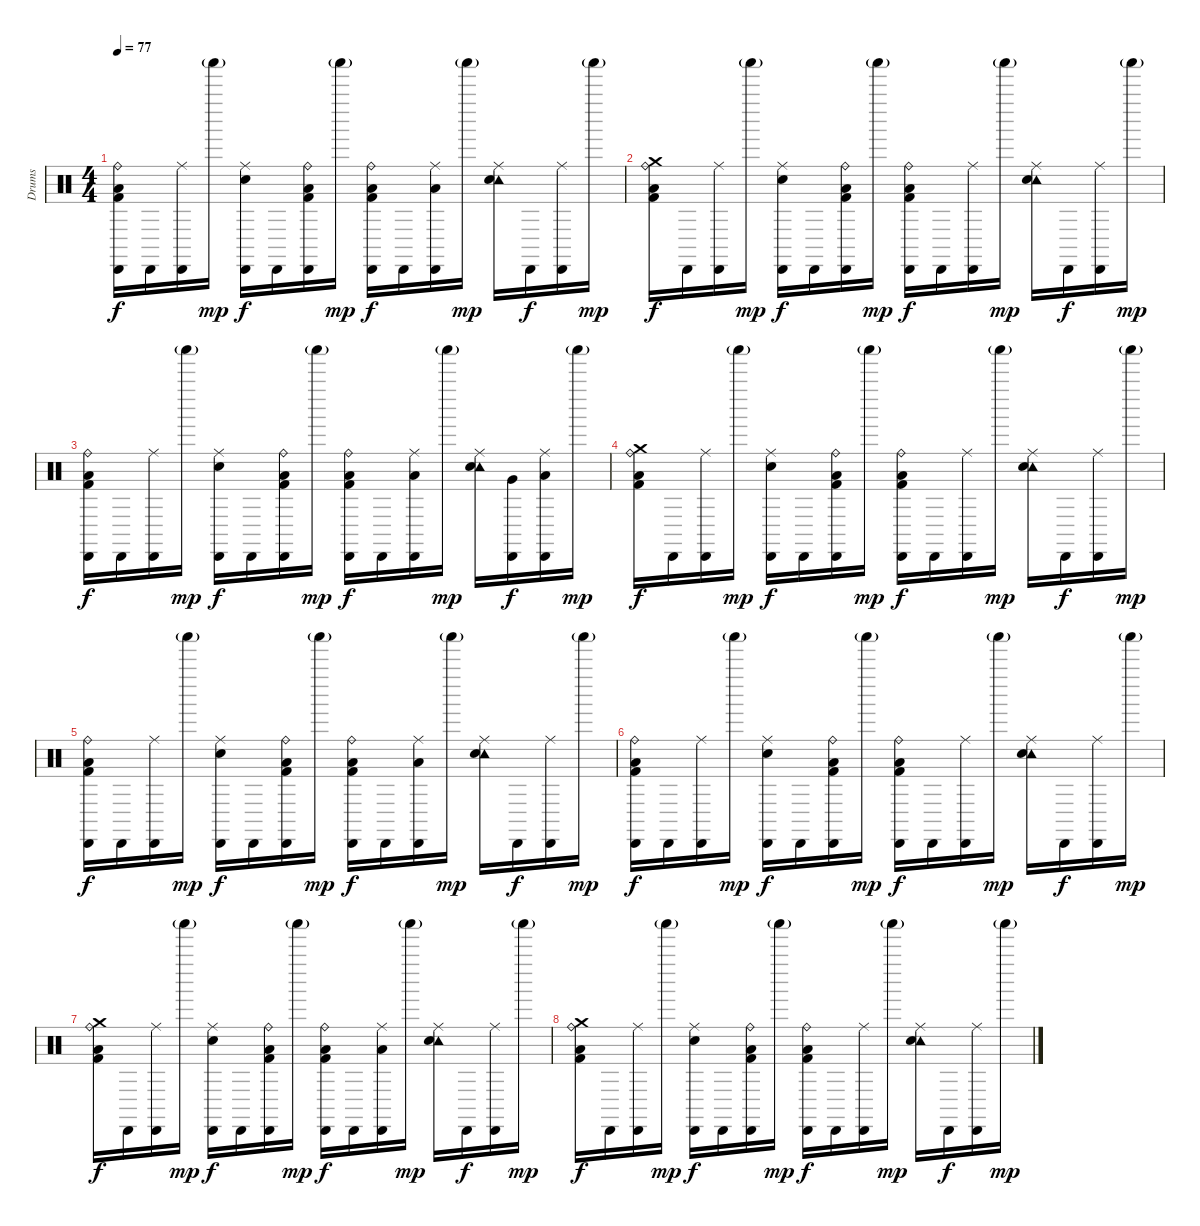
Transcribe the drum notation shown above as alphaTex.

\track ("Drums" "Drums") {instrument percussion}
\staff {score}
\articulation defaults
\ts (4 4)
\tempo 77
\clef neutral
\ks c
("Cabasa (hit)" "Ride (bell)" "Low Floor Tom (hit)" "Kick (hit) 2").16{dy f} "Cabasa (hit)".16 ("Cabasa (hit)" "Ride (middle)").16 "Shaker (hit)"{g}.16{dy mp} ("Cabasa (hit)" "Ride (middle)" "Snare (hit) 2").16{dy f} "Cabasa (hit)".16 ("Cabasa (hit)" "Ride (bell)" "Low Floor Tom (hit)" "Kick (hit) 2").16 "Shaker (hit)"{g}.16{dy mp} ("Cabasa (hit)" "Ride (bell)" "Low Floor Tom (hit)" "Kick (hit) 2").16{dy f} "Cabasa (hit)".16 ("Cabasa (hit)" "Ride (middle)" "Low Floor Tom (hit)").16 "Shaker (hit)"{g}.16{dy mp} ("Tambourine (hit)" "Ride (middle)" "Snare (hit) 2").16 "Cabasa (hit)".16{dy f} ("Cabasa (hit)" "Ride (middle)").16 "Shaker (hit)"{g}.16{dy mp} |
("Crash medium (hit)" "Ride (bell)" "Low Floor Tom (hit)" "Kick (hit) 2").16{dy f} "Cabasa (hit)".16 ("Cabasa (hit)" "Ride (middle)").16 "Shaker (hit)"{g}.16{dy mp} ("Cabasa (hit)" "Ride (middle)" "Snare (hit) 2").16{dy f} "Cabasa (hit)".16 ("Cabasa (hit)" "Ride (bell)" "Low Floor Tom (hit)" "Kick (hit) 2").16 "Shaker (hit)"{g}.16{dy mp} ("Cabasa (hit)" "Ride (bell)" "Low Floor Tom (hit)" "Kick (hit) 2").16{dy f} "Cabasa (hit)".16 ("Cabasa (hit)" "Ride (middle)").16 "Shaker (hit)"{g}.16{dy mp} ("Tambourine (hit)" "Ride (middle)" "Snare (hit) 2").16 "Cabasa (hit)".16{dy f} ("Cabasa (hit)" "Ride (middle)").16 "Shaker (hit)"{g}.16{dy mp} |
("Cabasa (hit)" "Ride (bell)" "Low Floor Tom (hit)" "Kick (hit) 2").16{dy f} "Cabasa (hit)".16 ("Cabasa (hit)" "Ride (middle)").16 "Shaker (hit)"{g}.16{dy mp} ("Cabasa (hit)" "Ride (middle)" "Snare (hit) 2").16{dy f} "Cabasa (hit)".16 ("Cabasa (hit)" "Ride (bell)" "Low Floor Tom (hit)" "Kick (hit) 2").16 "Shaker (hit)"{g}.16{dy mp} ("Cabasa (hit)" "Ride (bell)" "Low Floor Tom (hit)" "Kick (hit) 2").16{dy f} "Cabasa (hit)".16 ("Cabasa (hit)" "Ride (middle)" "Low Floor Tom (hit)").16 "Shaker (hit)"{g}.16{dy mp} ("Tambourine (hit)" "Ride (middle)" "Snare (hit) 2").16 ("Cabasa (hit)" "Very Low Tom (hit)").16{dy f} ("Cabasa (hit)" "Ride (middle)" "Low Floor Tom (hit)").16 "Shaker (hit)"{g}.16{dy mp} |
("Crash medium (hit)" "Ride (bell)" "Low Floor Tom (hit)" "Kick (hit) 2").16{dy f} "Cabasa (hit)".16 ("Cabasa (hit)" "Ride (middle)").16 "Shaker (hit)"{g}.16{dy mp} ("Cabasa (hit)" "Ride (middle)" "Snare (hit) 2").16{dy f} "Cabasa (hit)".16 ("Cabasa (hit)" "Ride (bell)" "Low Floor Tom (hit)" "Kick (hit) 2").16 "Shaker (hit)"{g}.16{dy mp} ("Cabasa (hit)" "Ride (bell)" "Low Floor Tom (hit)" "Kick (hit) 2").16{dy f} "Cabasa (hit)".16 ("Cabasa (hit)" "Ride (middle)").16 "Shaker (hit)"{g}.16{dy mp} ("Tambourine (hit)" "Ride (middle)" "Snare (hit) 2").16 "Cabasa (hit)".16{dy f} ("Cabasa (hit)" "Ride (middle)").16 "Shaker (hit)"{g}.16{dy mp} |
("Cabasa (hit)" "Ride (bell)" "Low Floor Tom (hit)" "Kick (hit) 2").16{dy f} "Cabasa (hit)".16 ("Cabasa (hit)" "Ride (middle)").16 "Shaker (hit)"{g}.16{dy mp} ("Cabasa (hit)" "Ride (middle)" "Snare (hit) 2").16{dy f} "Cabasa (hit)".16 ("Cabasa (hit)" "Ride (bell)" "Low Floor Tom (hit)" "Kick (hit) 2").16 "Shaker (hit)"{g}.16{dy mp} ("Cabasa (hit)" "Ride (bell)" "Low Floor Tom (hit)" "Kick (hit) 2").16{dy f} "Cabasa (hit)".16 ("Cabasa (hit)" "Ride (middle)" "Low Floor Tom (hit)").16 "Shaker (hit)"{g}.16{dy mp} ("Tambourine (hit)" "Ride (middle)" "Snare (hit) 2").16 "Cabasa (hit)".16{dy f} ("Cabasa (hit)" "Ride (middle)").16 "Shaker (hit)"{g}.16{dy mp} |
("Cabasa (hit)" "Ride (bell)" "Low Floor Tom (hit)" "Kick (hit) 2").16{dy f} "Cabasa (hit)".16 ("Cabasa (hit)" "Ride (middle)").16 "Shaker (hit)"{g}.16{dy mp} ("Cabasa (hit)" "Ride (middle)" "Snare (hit) 2").16{dy f} "Cabasa (hit)".16 ("Cabasa (hit)" "Ride (bell)" "Low Floor Tom (hit)" "Kick (hit) 2").16 "Shaker (hit)"{g}.16{dy mp} ("Cabasa (hit)" "Ride (bell)" "Low Floor Tom (hit)" "Kick (hit) 2").16{dy f} "Cabasa (hit)".16 ("Cabasa (hit)" "Ride (middle)").16 "Shaker (hit)"{g}.16{dy mp} ("Tambourine (hit)" "Ride (middle)" "Snare (hit) 2").16 "Cabasa (hit)".16{dy f} ("Cabasa (hit)" "Ride (middle)").16 "Shaker (hit)"{g}.16{dy mp} |
("Crash medium (hit)" "Ride (bell)" "Low Floor Tom (hit)" "Kick (hit) 2").16{dy f} "Cabasa (hit)".16 ("Cabasa (hit)" "Ride (middle)").16 "Shaker (hit)"{g}.16{dy mp} ("Cabasa (hit)" "Ride (middle)" "Snare (hit) 2").16{dy f} "Cabasa (hit)".16 ("Cabasa (hit)" "Ride (bell)" "Low Floor Tom (hit)" "Kick (hit) 2").16 "Shaker (hit)"{g}.16{dy mp} ("Cabasa (hit)" "Ride (bell)" "Low Floor Tom (hit)" "Kick (hit) 2").16{dy f} "Cabasa (hit)".16 ("Cabasa (hit)" "Ride (middle)" "Low Floor Tom (hit)").16 "Shaker (hit)"{g}.16{dy mp} ("Tambourine (hit)" "Ride (middle)" "Snare (hit) 2").16 "Cabasa (hit)".16{dy f} ("Cabasa (hit)" "Ride (middle)").16 "Shaker (hit)"{g}.16{dy mp} |
("Crash medium (hit)" "Ride (bell)" "Low Floor Tom (hit)" "Kick (hit) 2").16{dy f} "Cabasa (hit)".16 ("Cabasa (hit)" "Ride (middle)").16 "Shaker (hit)"{g}.16{dy mp} ("Cabasa (hit)" "Ride (middle)" "Snare (hit) 2").16{dy f} "Cabasa (hit)".16 ("Cabasa (hit)" "Ride (bell)" "Low Floor Tom (hit)" "Kick (hit) 2").16 "Shaker (hit)"{g}.16{dy mp} ("Cabasa (hit)" "Ride (bell)" "Low Floor Tom (hit)" "Kick (hit) 2").16{dy f} "Cabasa (hit)".16 ("Cabasa (hit)" "Ride (middle)").16 "Shaker (hit)"{g}.16{dy mp} ("Tambourine (hit)" "Ride (middle)" "Snare (hit) 2").16 "Cabasa (hit)".16{dy f} ("Cabasa (hit)" "Ride (middle)").16 "Shaker (hit)"{g}.16{dy mp}
